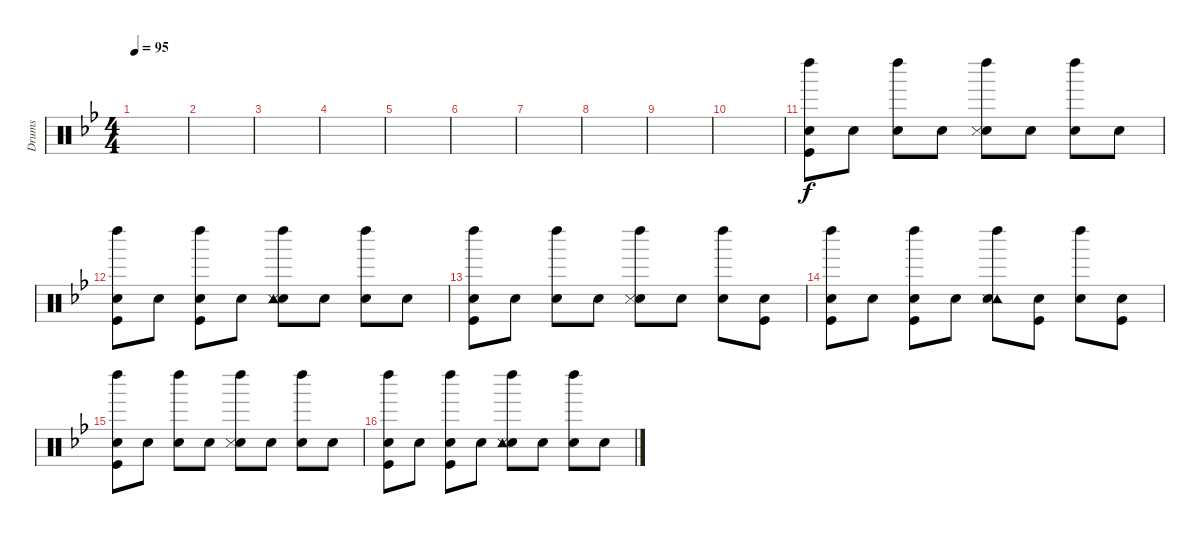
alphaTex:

\track ("Drums" "Drums") {instrument percussion}
\staff {score}
\articulation defaults
\ts (4 4)
\tempo 95
\clef neutral
\ks gminor
|
|
|
|
|
|
|
|
|
|
("Left Maraca (hit)" "Snare (hit)" "Kick (hit)").8 "Snare (hit)".8 ("Left Maraca (hit)" "Snare (hit)").8 "Snare (hit)".8 ("Left Maraca (hit)" "Snare (hit)" "Snare (side stick) 3").8 "Snare (hit)".8 ("Left Maraca (hit)" "Snare (hit)").8 "Snare (hit)".8 |
("Left Maraca (hit)" "Snare (hit)" "Kick (hit)").8 "Snare (hit)".8 ("Left Maraca (hit)" "Snare (hit)" "Kick (hit)").8 "Snare (hit)".8 ("Left Maraca (hit)" "Snare (hit)" "Tambourine (hit)" "Snare (side stick) 3").8 "Snare (hit)".8 ("Left Maraca (hit)" "Snare (hit)").8 "Snare (hit)".8 |
("Left Maraca (hit)" "Snare (hit)" "Kick (hit)").8 "Snare (hit)".8 ("Left Maraca (hit)" "Snare (hit)").8 "Snare (hit)".8 ("Left Maraca (hit)" "Snare (hit)" "Snare (side stick) 3").8 "Snare (hit)".8 ("Left Maraca (hit)" "Snare (hit)").8 ("Snare (hit)" "Kick (hit)").8 |
("Left Maraca (hit)" "Snare (hit)" "Kick (hit)").8 "Snare (hit)".8 ("Left Maraca (hit)" "Snare (hit)" "Kick (hit)").8 "Snare (hit)".8 ("Left Maraca (hit)" "Tambourine (hit)" "Snare (hit)" "Snare (side stick) 3").8 ("Snare (hit)" "Kick (hit)").8 ("Left Maraca (hit)" "Snare (hit)").8 ("Snare (hit)" "Kick (hit)").8 |
("Left Maraca (hit)" "Snare (hit)" "Kick (hit)").8 "Snare (hit)".8 ("Left Maraca (hit)" "Snare (hit)").8 "Snare (hit)".8 ("Left Maraca (hit)" "Snare (hit)" "Snare (side stick) 3").8 "Snare (hit)".8 ("Left Maraca (hit)" "Snare (hit)").8 "Snare (hit)".8 |
("Left Maraca (hit)" "Snare (hit)" "Kick (hit)").8 "Snare (hit)".8 ("Left Maraca (hit)" "Snare (hit)" "Kick (hit)").8 "Snare (hit)".8 ("Left Maraca (hit)" "Snare (hit)" "Tambourine (hit)" "Snare (side stick) 3").8 "Snare (hit)".8 ("Left Maraca (hit)" "Snare (hit)").8 "Snare (hit)".8
